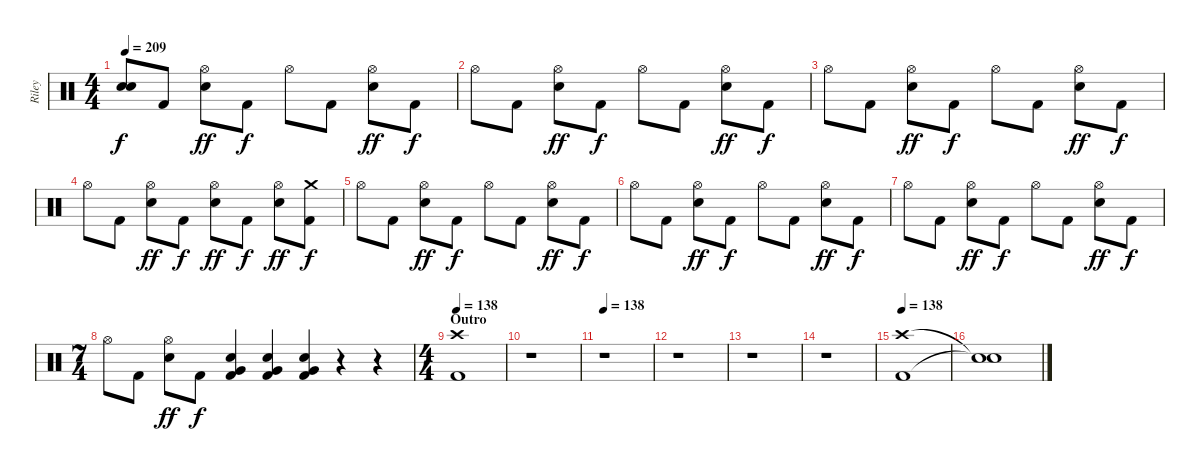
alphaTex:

\track ("Riley" "Riley") {instrument percussion}
\staff {score}
\articulation defaults
\ts (4 4)
\tempo 209
\clef neutral
\ks c
("Snare (hit)"{t} "Snare (hit)"{t}).8{dy f} "Kick (hit) 2".8 ("Hi-Hat (open)" "Electric Snare (hit)").8{dy ff} "Kick (hit) 2".8{dy f} "Hi-Hat (open)".8 "Kick (hit) 2".8 ("Hi-Hat (open)" "Electric Snare (hit)").8{dy ff} "Kick (hit) 2".8{dy f} |
"Hi-Hat (open)".8 "Kick (hit) 2".8 ("Hi-Hat (open)" "Electric Snare (hit)").8{dy ff} "Kick (hit) 2".8{dy f} "Hi-Hat (open)".8 "Kick (hit) 2".8 ("Hi-Hat (open)" "Electric Snare (hit)").8{dy ff} "Kick (hit) 2".8{dy f} |
"Hi-Hat (open)".8 "Kick (hit) 2".8 ("Hi-Hat (open)" "Electric Snare (hit)").8{dy ff} "Kick (hit) 2".8{dy f} "Hi-Hat (open)".8 "Kick (hit) 2".8 ("Hi-Hat (open)" "Electric Snare (hit)").8{dy ff} "Kick (hit) 2".8{dy f} |
"Hi-Hat (open)".8 "Kick (hit) 2".8 ("Hi-Hat (open)" "Electric Snare (hit)").8{dy ff} "Kick (hit) 2".8{dy f} ("Hi-Hat (open)" "Electric Snare (hit)").8{dy ff} "Kick (hit) 2".8{dy f} ("Hi-Hat (open)" "Electric Snare (hit)").8{dy ff} ("Crash medium (hit)" "Kick (hit) 2").8{dy f} |
"Hi-Hat (open)".8 "Kick (hit) 2".8 ("Hi-Hat (open)" "Electric Snare (hit)").8{dy ff} "Kick (hit) 2".8{dy f} "Hi-Hat (open)".8 "Kick (hit) 2".8 ("Hi-Hat (open)" "Electric Snare (hit)").8{dy ff} "Kick (hit) 2".8{dy f} |
"Hi-Hat (open)".8 "Kick (hit) 2".8 ("Hi-Hat (open)" "Electric Snare (hit)").8{dy ff} "Kick (hit) 2".8{dy f} "Hi-Hat (open)".8 "Kick (hit) 2".8 ("Hi-Hat (open)" "Electric Snare (hit)").8{dy ff} "Kick (hit) 2".8{dy f} |
"Hi-Hat (open)".8 "Kick (hit) 2".8 ("Hi-Hat (open)" "Electric Snare (hit)").8{dy ff} "Kick (hit) 2".8{dy f} "Hi-Hat (open)".8 "Kick (hit) 2".8 ("Hi-Hat (open)" "Electric Snare (hit)").8{dy ff} "Kick (hit) 2".8{dy f} |
\ts (7 4)
"Hi-Hat (open)".8 "Kick (hit) 2".8 ("Hi-Hat (open)" "Electric Snare (hit)").8{dy ff} "Kick (hit) 2".8{dy f} ("Very Low Tom (hit)" "Electric Snare (hit)" "Kick (hit) 2").4 ("Very Low Tom (hit)" "Electric Snare (hit)" "Kick (hit) 2").4 ("Very Low Tom (hit)" "Electric Snare (hit)" "Kick (hit) 2").4 r.4 r.4 |
\ts (4 4)
\section ("" "Outro")
\tempo 138
("Crash high (hit)" "Kick (hit) 2").1 |
r.1 |
\tempo 138
r.1 |
r.1 |
r.1 |
r.1 |
\tempo 138
("Crash high (hit)" "Kick (hit) 2").1 |
("Snare (hit)"{t} "Snare (hit)"{t}).1
